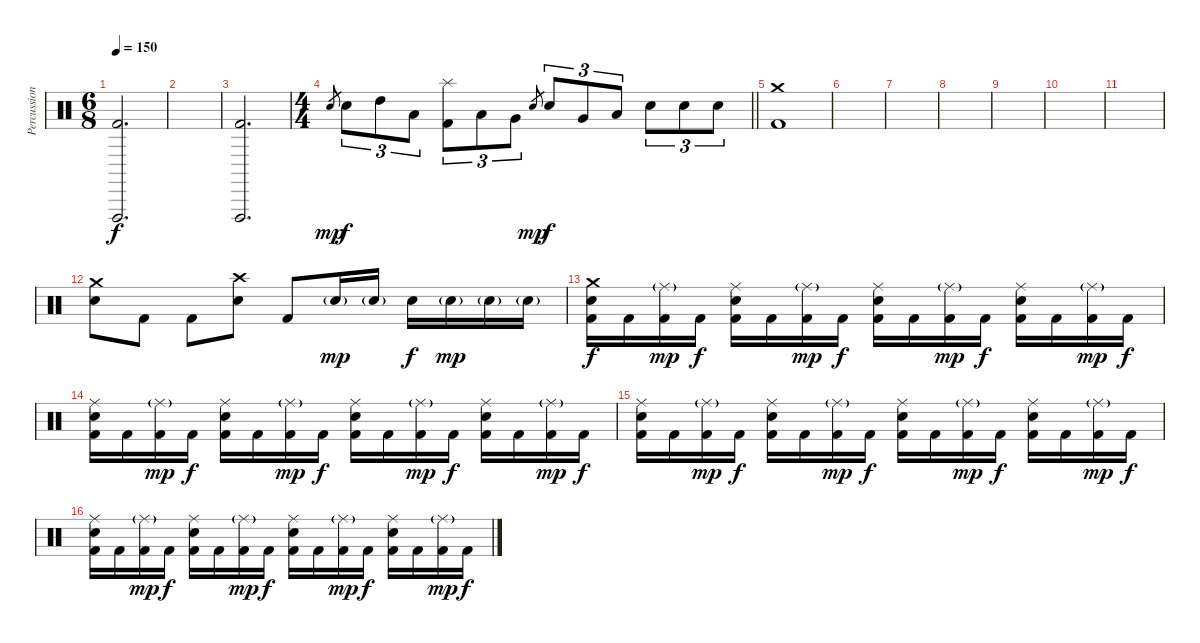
\track ("Percussions" "Percussion") {instrument percussion}
\staff {score}
\articulation defaults
\ts (6 8)
\tempo 150
\clef neutral
\ks c
("Vibraslap (hit)" "Kick (hit) 2").2{d dy f} |
|
("Vibraslap (hit)" "Kick (hit) 2").2{d} |
\ts (4 4)
\barLineRight lightlight "Snare (hit) 2".8{gr dy mp} "Snare (hit) 2".8{tu (3 2) dy f} "High Tom (hit)".8{tu (3 2)} "Low Tom (hit)".8{tu (3 2)}
("Splash (hit)" "Kick (hit) 2").8{tu (3 2)} "Low Tom (hit)".8{tu (3 2)} "Very Low Tom (hit)".8{tu (3 2)} "Snare (hit) 2".8{gr dy mp} "Snare (hit) 2".8{tu (3 2) dy f} "Very Low Tom (hit)".8{tu (3 2)} "Low Floor Tom (hit)".8{tu (3 2)} "Snare (hit) 2".8{tu (3 2)} "Snare (hit) 2".8{tu (3 2)} "Snare (hit) 2".8{tu (3 2)} |
("Crash medium (hit)" "Kick (hit) 2").1 |
|
|
|
|
|
|
("Crash medium (hit)" "Snare (hit) 2").8 "Kick (hit) 2".8 "Kick (hit) 2".8 ("Crash high (hit)" "Snare (hit) 2").8 "Kick (hit) 2".8 "Snare (hit) 2"{g}.16{dy mp} "Snare (hit) 2"{g}.16 "Snare (hit) 2".16{dy f} "Snare (hit) 2"{g}.16{dy mp} "Snare (hit) 2"{g}.16 "Snare (hit) 2"{g}.16 |
("Crash medium (hit)" "Snare (hit) 2" "Kick (hit) 2").16{dy f} "Kick (hit) 2".16 ("Ride (middle)"{g} "Kick (hit) 2").16{dy mp} "Kick (hit) 2".16{dy f} ("Ride (middle)" "Snare (hit) 2" "Kick (hit) 2").16 "Kick (hit) 2".16 ("Ride (middle)"{g} "Kick (hit) 2").16{dy mp} "Kick (hit) 2".16{dy f} ("Ride (middle)" "Snare (hit) 2" "Kick (hit) 2").16 "Kick (hit) 2".16 ("Ride (middle)"{g} "Kick (hit) 2").16{dy mp} "Kick (hit) 2".16{dy f} ("Ride (middle)" "Snare (hit) 2" "Kick (hit) 2").16 "Kick (hit) 2".16 ("Ride (middle)"{g} "Kick (hit) 2").16{dy mp} "Kick (hit) 2".16{dy f} |
("Ride (middle)" "Snare (hit) 2" "Kick (hit) 2").16 "Kick (hit) 2".16 ("Ride (middle)"{g} "Kick (hit) 2").16{dy mp} "Kick (hit) 2".16{dy f} ("Ride (middle)" "Snare (hit) 2" "Kick (hit) 2").16 "Kick (hit) 2".16 ("Ride (middle)"{g} "Kick (hit) 2").16{dy mp} "Kick (hit) 2".16{dy f} ("Ride (middle)" "Snare (hit) 2" "Kick (hit) 2").16 "Kick (hit) 2".16 ("Ride (middle)"{g} "Kick (hit) 2").16{dy mp} "Kick (hit) 2".16{dy f} ("Ride (middle)" "Snare (hit) 2" "Kick (hit) 2").16 "Kick (hit) 2".16 ("Ride (middle)"{g} "Kick (hit) 2").16{dy mp} "Kick (hit) 2".16{dy f} |
("Ride (middle)" "Snare (hit) 2" "Kick (hit) 2").16 "Kick (hit) 2".16 ("Ride (middle)"{g} "Kick (hit) 2").16{dy mp} "Kick (hit) 2".16{dy f} ("Ride (middle)" "Snare (hit) 2" "Kick (hit) 2").16 "Kick (hit) 2".16 ("Ride (middle)"{g} "Kick (hit) 2").16{dy mp} "Kick (hit) 2".16{dy f} ("Ride (middle)" "Snare (hit) 2" "Kick (hit) 2").16 "Kick (hit) 2".16 ("Ride (middle)"{g} "Kick (hit) 2").16{dy mp} "Kick (hit) 2".16{dy f} ("Ride (middle)" "Snare (hit) 2" "Kick (hit) 2").16 "Kick (hit) 2".16 ("Ride (middle)"{g} "Kick (hit) 2").16{dy mp} "Kick (hit) 2".16{dy f} |
("Ride (middle)" "Snare (hit) 2" "Kick (hit) 2").16 "Kick (hit) 2".16 ("Ride (middle)"{g} "Kick (hit) 2").16{dy mp} "Kick (hit) 2".16{dy f} ("Ride (middle)" "Snare (hit) 2" "Kick (hit) 2").16 "Kick (hit) 2".16 ("Ride (middle)"{g} "Kick (hit) 2").16{dy mp} "Kick (hit) 2".16{dy f} ("Ride (middle)" "Snare (hit) 2" "Kick (hit) 2").16 "Kick (hit) 2".16 ("Ride (middle)"{g} "Kick (hit) 2").16{dy mp} "Kick (hit) 2".16{dy f} ("Ride (middle)" "Snare (hit) 2" "Kick (hit) 2").16 "Kick (hit) 2".16 ("Ride (middle)"{g} "Kick (hit) 2").16{dy mp} "Kick (hit) 2".16{dy f}
